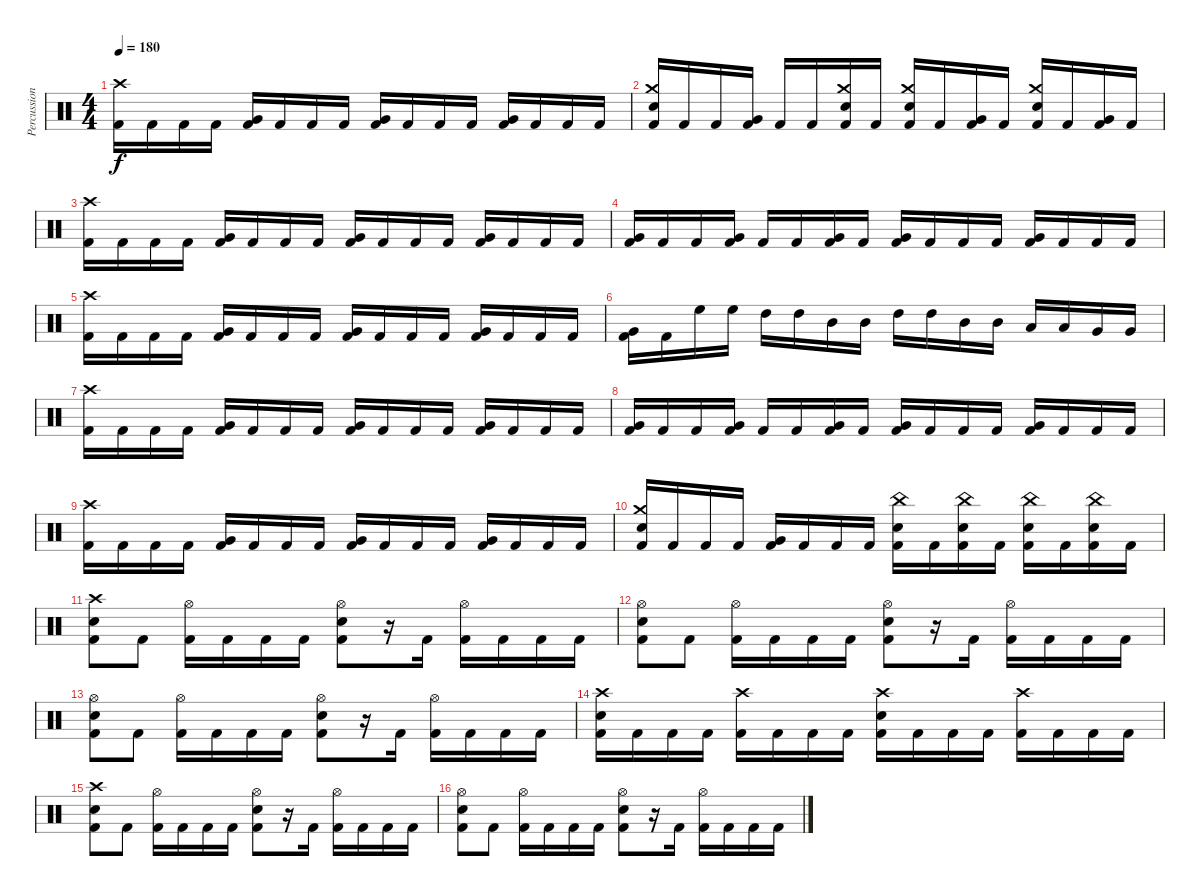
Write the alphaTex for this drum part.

\track ("Percussion" "Percussion") {instrument percussion}
\staff {score}
\articulation defaults
\ts (4 4)
\tempo 180
\clef neutral
\ks c
("Crash high (hit)" "Kick (hit) 2").16{dy f} "Kick (hit) 2".16 "Kick (hit) 2".16 "Kick (hit) 2".16 ("Very Low Tom (hit)" "Kick (hit) 2").16 "Kick (hit) 2".16 "Kick (hit) 2".16 "Kick (hit) 2".16 ("Very Low Tom (hit)" "Kick (hit) 2").16 "Kick (hit) 2".16 "Kick (hit) 2".16 "Kick (hit) 2".16 ("Very Low Tom (hit)" "Kick (hit) 2").16 "Kick (hit) 2".16 "Kick (hit) 2".16 "Kick (hit) 2".16 |
("Crash medium (hit)" "Snare (hit) 2" "Kick (hit) 2").16 "Kick (hit) 2".16 "Kick (hit) 2".16 ("Very Low Tom (hit)" "Kick (hit) 2").16 "Kick (hit) 2".16 "Kick (hit) 2".16 ("Crash medium (hit)" "Snare (hit) 2" "Kick (hit) 2").16 "Kick (hit) 2".16 ("Crash medium (hit)" "Snare (hit) 2" "Kick (hit) 2").16 "Kick (hit) 2".16 ("Very Low Tom (hit)" "Kick (hit) 2").16 "Kick (hit) 2".16 ("Crash medium (hit)" "Snare (hit) 2" "Kick (hit) 2").16 "Kick (hit) 2".16 ("Very Low Tom (hit)" "Kick (hit) 2").16 "Kick (hit) 2".16 |
("Crash high (hit)" "Kick (hit) 2").16 "Kick (hit) 2".16 "Kick (hit) 2".16 "Kick (hit) 2".16 ("Very Low Tom (hit)" "Kick (hit) 2").16 "Kick (hit) 2".16 "Kick (hit) 2".16 "Kick (hit) 2".16 ("Very Low Tom (hit)" "Kick (hit) 2").16 "Kick (hit) 2".16 "Kick (hit) 2".16 "Kick (hit) 2".16 ("Very Low Tom (hit)" "Kick (hit) 2").16 "Kick (hit) 2".16 "Kick (hit) 2".16 "Kick (hit) 2".16 |
("Very Low Tom (hit)" "Kick (hit) 2").16 "Kick (hit) 2".16 "Kick (hit) 2".16 ("Very Low Tom (hit)" "Kick (hit) 2").16 "Kick (hit) 2".16 "Kick (hit) 2".16 ("Very Low Tom (hit)" "Kick (hit) 2").16 "Kick (hit) 2".16 ("Very Low Tom (hit)" "Kick (hit) 2").16 "Kick (hit) 2".16 "Kick (hit) 2".16 "Kick (hit) 2".16 ("Very Low Tom (hit)" "Kick (hit) 2").16 "Kick (hit) 2".16 "Kick (hit) 2".16 "Kick (hit) 2".16 |
("Crash high (hit)" "Kick (hit) 2").16 "Kick (hit) 2".16 "Kick (hit) 2".16 "Kick (hit) 2".16 ("Very Low Tom (hit)" "Kick (hit) 2").16 "Kick (hit) 2".16 "Kick (hit) 2".16 "Kick (hit) 2".16 ("Very Low Tom (hit)" "Kick (hit) 2").16 "Kick (hit) 2".16 "Kick (hit) 2".16 "Kick (hit) 2".16 ("Very Low Tom (hit)" "Kick (hit) 2").16 "Kick (hit) 2".16 "Kick (hit) 2".16 "Kick (hit) 2".16 |
("Very Low Tom (hit)" "Kick (hit) 2").16 "Kick (hit) 2".16 "High Floor Tom (hit)".16 "High Floor Tom (hit)".16 "High Tom (hit)".16 "High Tom (hit)".16 "Mid Tom (hit)".16 "Mid Tom (hit)".16 "High Tom (hit)".16 "High Tom (hit)".16 "Mid Tom (hit)".16 "Mid Tom (hit)".16 "Low Tom (hit)".16 "Low Tom (hit)".16 "Very Low Tom (hit)".16 "Very Low Tom (hit)".16 |
("Crash high (hit)" "Kick (hit) 2").16 "Kick (hit) 2".16 "Kick (hit) 2".16 "Kick (hit) 2".16 ("Very Low Tom (hit)" "Kick (hit) 2").16 "Kick (hit) 2".16 "Kick (hit) 2".16 "Kick (hit) 2".16 ("Very Low Tom (hit)" "Kick (hit) 2").16 "Kick (hit) 2".16 "Kick (hit) 2".16 "Kick (hit) 2".16 ("Very Low Tom (hit)" "Kick (hit) 2").16 "Kick (hit) 2".16 "Kick (hit) 2".16 "Kick (hit) 2".16 |
("Very Low Tom (hit)" "Kick (hit) 2").16 "Kick (hit) 2".16 "Kick (hit) 2".16 ("Very Low Tom (hit)" "Kick (hit) 2").16 "Kick (hit) 2".16 "Kick (hit) 2".16 ("Very Low Tom (hit)" "Kick (hit) 2").16 "Kick (hit) 2".16 ("Very Low Tom (hit)" "Kick (hit) 2").16 "Kick (hit) 2".16 "Kick (hit) 2".16 "Kick (hit) 2".16 ("Very Low Tom (hit)" "Kick (hit) 2").16 "Kick (hit) 2".16 "Kick (hit) 2".16 "Kick (hit) 2".16 |
("Crash high (hit)" "Kick (hit) 2").16 "Kick (hit) 2".16 "Kick (hit) 2".16 "Kick (hit) 2".16 ("Very Low Tom (hit)" "Kick (hit) 2").16 "Kick (hit) 2".16 "Kick (hit) 2".16 "Kick (hit) 2".16 ("Very Low Tom (hit)" "Kick (hit) 2").16 "Kick (hit) 2".16 "Kick (hit) 2".16 "Kick (hit) 2".16 ("Very Low Tom (hit)" "Kick (hit) 2").16 "Kick (hit) 2".16 "Kick (hit) 2".16 "Kick (hit) 2".16 |
("Crash medium (hit)" "Snare (hit) 2" "Kick (hit) 2").16 "Kick (hit) 2".16 "Kick (hit) 2".16 "Kick (hit) 2".16 ("Very Low Tom (hit)" "Kick (hit) 2").16 "Kick (hit) 2".16 "Kick (hit) 2".16 "Kick (hit) 2".16 ("China (hit)" "Snare (hit) 2" "Kick (hit) 2").16 "Kick (hit) 2".16 ("China (hit)" "Snare (hit) 2" "Kick (hit) 2").16 "Kick (hit) 2".16 ("China (hit)" "Snare (hit) 2" "Kick (hit) 2").16 "Kick (hit) 2".16 ("China (hit)" "Snare (hit) 2" "Kick (hit) 2").16 "Kick (hit) 2".16 |
("Crash high (hit)" "Snare (hit) 2" "Kick (hit) 2").8 "Kick (hit) 2".8 ("Hi-Hat (open)" "Kick (hit) 2").16 "Kick (hit) 2".16 "Kick (hit) 2".16 "Kick (hit) 2".16 ("Hi-Hat (open)" "Snare (hit) 2" "Kick (hit) 2").8 r.16 "Kick (hit) 2".16 ("Hi-Hat (open)" "Kick (hit) 2").16 "Kick (hit) 2".16 "Kick (hit) 2".16 "Kick (hit) 2".16 |
("Hi-Hat (open)" "Snare (hit) 2" "Kick (hit) 2").8 "Kick (hit) 2".8 ("Hi-Hat (open)" "Kick (hit) 2").16 "Kick (hit) 2".16 "Kick (hit) 2".16 "Kick (hit) 2".16 ("Hi-Hat (open)" "Snare (hit) 2" "Kick (hit) 2").8 r.16 "Kick (hit) 2".16 ("Hi-Hat (open)" "Kick (hit) 2").16 "Kick (hit) 2".16 "Kick (hit) 2".16 "Kick (hit) 2".16 |
("Hi-Hat (open)" "Snare (hit) 2" "Kick (hit) 2").8 "Kick (hit) 2".8 ("Hi-Hat (open)" "Kick (hit) 2").16 "Kick (hit) 2".16 "Kick (hit) 2".16 "Kick (hit) 2".16 ("Hi-Hat (open)" "Snare (hit) 2" "Kick (hit) 2").8 r.16 "Kick (hit) 2".16 ("Hi-Hat (open)" "Kick (hit) 2").16 "Kick (hit) 2".16 "Kick (hit) 2".16 "Kick (hit) 2".16 |
("Crash high (hit)" "Snare (hit) 2" "Kick (hit) 2").16 "Kick (hit) 2".16 "Kick (hit) 2".16 "Kick (hit) 2".16 ("Crash high (hit)" "Kick (hit) 2").16 "Kick (hit) 2".16 "Kick (hit) 2".16 "Kick (hit) 2".16 ("Crash high (hit)" "Snare (hit) 2" "Kick (hit) 2").16 "Kick (hit) 2".16 "Kick (hit) 2".16 "Kick (hit) 2".16 ("Crash high (hit)" "Kick (hit) 2").16 "Kick (hit) 2".16 "Kick (hit) 2".16 "Kick (hit) 2".16 |
("Crash high (hit)" "Snare (hit) 2" "Kick (hit) 2").8 "Kick (hit) 2".8 ("Hi-Hat (open)" "Kick (hit) 2").16 "Kick (hit) 2".16 "Kick (hit) 2".16 "Kick (hit) 2".16 ("Hi-Hat (open)" "Snare (hit) 2" "Kick (hit) 2").8 r.16 "Kick (hit) 2".16 ("Hi-Hat (open)" "Kick (hit) 2").16 "Kick (hit) 2".16 "Kick (hit) 2".16 "Kick (hit) 2".16 |
("Hi-Hat (open)" "Snare (hit) 2" "Kick (hit) 2").8 "Kick (hit) 2".8 ("Hi-Hat (open)" "Kick (hit) 2").16 "Kick (hit) 2".16 "Kick (hit) 2".16 "Kick (hit) 2".16 ("Hi-Hat (open)" "Snare (hit) 2" "Kick (hit) 2").8 r.16 "Kick (hit) 2".16 ("Hi-Hat (open)" "Kick (hit) 2").16 "Kick (hit) 2".16 "Kick (hit) 2".16 "Kick (hit) 2".16
